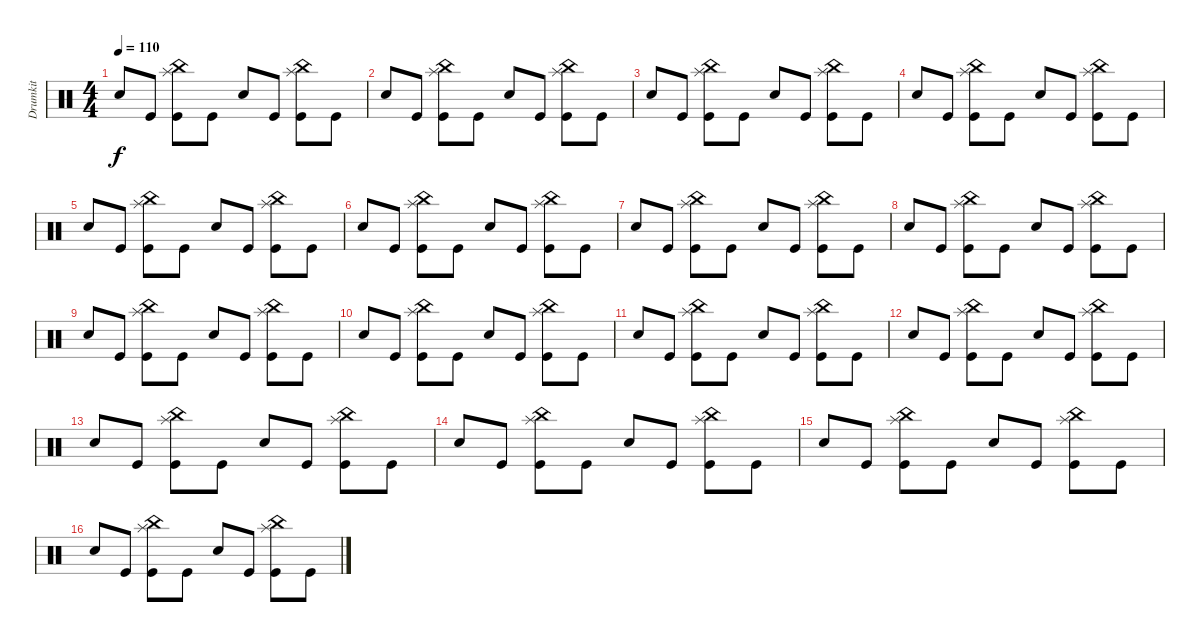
\track ("Drumkit" "Drumkit") {instrument percussion}
\staff {score}
\articulation defaults
\ts (4 4)
\tempo 110
\clef neutral
\ks c "Snare (hit) 2".8{dy f} "Kick (hit)".8
("Splash (hit)" "China (hit)" "Kick (hit)").8 "Kick (hit)".8 "Snare (hit) 2".8 "Kick (hit)".8 ("Splash (hit)" "China (hit)" "Kick (hit)").8 "Kick (hit)".8 |
"Snare (hit) 2".8 "Kick (hit)".8 ("Splash (hit)" "China (hit)" "Kick (hit)").8 "Kick (hit)".8 "Snare (hit) 2".8 "Kick (hit)".8 ("Splash (hit)" "China (hit)" "Kick (hit)").8 "Kick (hit)".8 |
"Snare (hit) 2".8 "Kick (hit)".8 ("Splash (hit)" "China (hit)" "Kick (hit)").8 "Kick (hit)".8 "Snare (hit) 2".8 "Kick (hit)".8 ("Splash (hit)" "China (hit)" "Kick (hit)").8 "Kick (hit)".8 |
"Snare (hit) 2".8 "Kick (hit)".8 ("Splash (hit)" "China (hit)" "Kick (hit)").8 "Kick (hit)".8 "Snare (hit) 2".8 "Kick (hit)".8 ("Splash (hit)" "China (hit)" "Kick (hit)").8 "Kick (hit)".8 |
"Snare (hit) 2".8 "Kick (hit)".8 ("Splash (hit)" "China (hit)" "Kick (hit)").8 "Kick (hit)".8 "Snare (hit) 2".8 "Kick (hit)".8 ("Splash (hit)" "China (hit)" "Kick (hit)").8 "Kick (hit)".8 |
"Snare (hit) 2".8 "Kick (hit)".8 ("Splash (hit)" "China (hit)" "Kick (hit)").8 "Kick (hit)".8 "Snare (hit) 2".8 "Kick (hit)".8 ("Splash (hit)" "China (hit)" "Kick (hit)").8 "Kick (hit)".8 |
"Snare (hit) 2".8 "Kick (hit)".8 ("Splash (hit)" "China (hit)" "Kick (hit)").8 "Kick (hit)".8 "Snare (hit) 2".8 "Kick (hit)".8 ("Splash (hit)" "China (hit)" "Kick (hit)").8 "Kick (hit)".8 |
"Snare (hit) 2".8 "Kick (hit)".8 ("Splash (hit)" "China (hit)" "Kick (hit)").8 "Kick (hit)".8 "Snare (hit) 2".8 "Kick (hit)".8 ("Splash (hit)" "China (hit)" "Kick (hit)").8 "Kick (hit)".8 |
"Snare (hit) 2".8 "Kick (hit)".8 ("Splash (hit)" "China (hit)" "Kick (hit)").8 "Kick (hit)".8 "Snare (hit) 2".8 "Kick (hit)".8 ("Splash (hit)" "China (hit)" "Kick (hit)").8 "Kick (hit)".8 |
"Snare (hit) 2".8 "Kick (hit)".8 ("Splash (hit)" "China (hit)" "Kick (hit)").8 "Kick (hit)".8 "Snare (hit) 2".8 "Kick (hit)".8 ("Splash (hit)" "China (hit)" "Kick (hit)").8 "Kick (hit)".8 |
"Snare (hit) 2".8 "Kick (hit)".8 ("Splash (hit)" "China (hit)" "Kick (hit)").8 "Kick (hit)".8 "Snare (hit) 2".8 "Kick (hit)".8 ("Splash (hit)" "China (hit)" "Kick (hit)").8 "Kick (hit)".8 |
"Snare (hit) 2".8 "Kick (hit)".8 ("Splash (hit)" "China (hit)" "Kick (hit)").8 "Kick (hit)".8 "Snare (hit) 2".8 "Kick (hit)".8 ("Splash (hit)" "China (hit)" "Kick (hit)").8 "Kick (hit)".8 |
"Snare (hit) 2".8 "Kick (hit)".8 ("Splash (hit)" "China (hit)" "Kick (hit)").8 "Kick (hit)".8 "Snare (hit) 2".8 "Kick (hit)".8 ("Splash (hit)" "China (hit)" "Kick (hit)").8 "Kick (hit)".8 |
"Snare (hit) 2".8 "Kick (hit)".8 ("Splash (hit)" "China (hit)" "Kick (hit)").8 "Kick (hit)".8 "Snare (hit) 2".8 "Kick (hit)".8 ("Splash (hit)" "China (hit)" "Kick (hit)").8 "Kick (hit)".8 |
"Snare (hit) 2".8 "Kick (hit)".8 ("Splash (hit)" "China (hit)" "Kick (hit)").8 "Kick (hit)".8 "Snare (hit) 2".8 "Kick (hit)".8 ("Splash (hit)" "China (hit)" "Kick (hit)").8 "Kick (hit)".8 |
"Snare (hit) 2".8 "Kick (hit)".8 ("Splash (hit)" "China (hit)" "Kick (hit)").8 "Kick (hit)".8 "Snare (hit) 2".8 "Kick (hit)".8 ("Splash (hit)" "China (hit)" "Kick (hit)").8 "Kick (hit)".8
